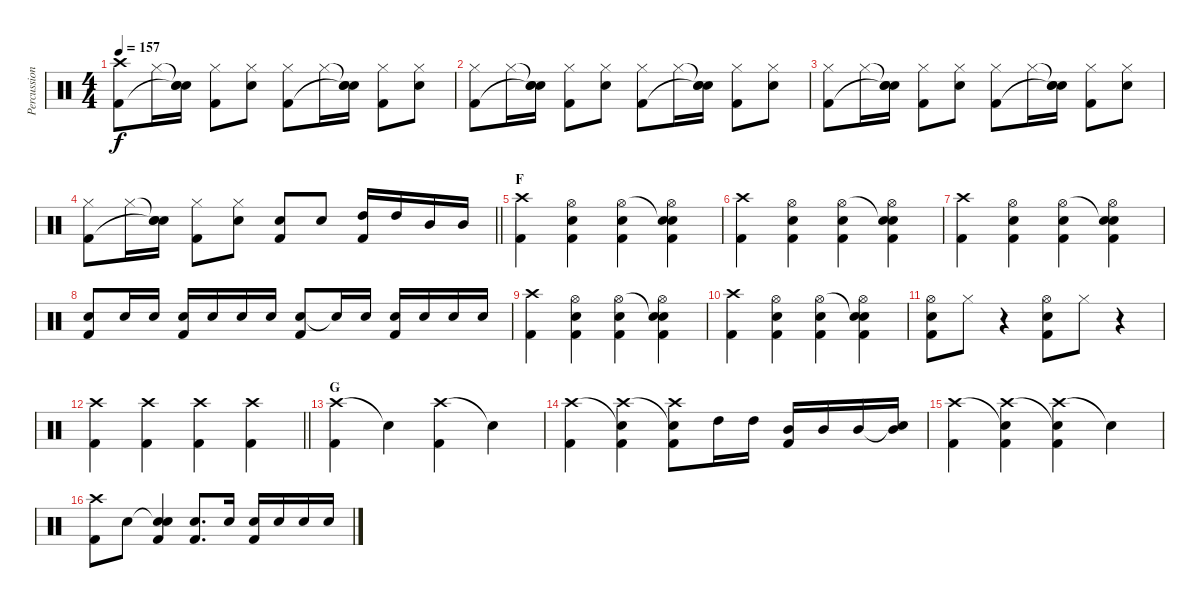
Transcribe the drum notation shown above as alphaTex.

\track ("Percussion" "Percussion") {instrument percussion}
\staff {score}
\articulation defaults
\ts (4 4)
\tempo 157
\clef neutral
\ks c
("Crash high (hit)" "Kick (hit) 2").8{dy f} "Hi-Hat (closed)".16 ("Snare (hit)"{t} "Snare (hit)"{t} "Electric Snare (hit)").16 ("Hi-Hat (closed)" "Kick (hit) 2").8 ("Hi-Hat (closed)" "Electric Snare (hit)").8 ("Hi-Hat (closed)" "Kick (hit) 2").8 "Hi-Hat (closed)".16 ("Snare (hit)"{t} "Snare (hit)"{t} "Electric Snare (hit)").16 ("Hi-Hat (closed)" "Kick (hit) 2").8 ("Hi-Hat (closed)" "Electric Snare (hit)").8 |
("Hi-Hat (closed)" "Kick (hit) 2").8 "Hi-Hat (closed)".16 ("Snare (hit)"{t} "Snare (hit)"{t} "Electric Snare (hit)").16 ("Hi-Hat (closed)" "Kick (hit) 2").8 ("Hi-Hat (closed)" "Electric Snare (hit)").8 ("Hi-Hat (closed)" "Kick (hit) 2").8 "Hi-Hat (closed)".16 ("Snare (hit)"{t} "Snare (hit)"{t} "Electric Snare (hit)").16 ("Hi-Hat (closed)" "Kick (hit) 2").8 ("Hi-Hat (closed)" "Electric Snare (hit)").8 |
("Hi-Hat (closed)" "Kick (hit) 2").8 "Hi-Hat (closed)".16 ("Snare (hit)"{t} "Snare (hit)"{t} "Electric Snare (hit)").16 ("Hi-Hat (closed)" "Kick (hit) 2").8 ("Hi-Hat (closed)" "Electric Snare (hit)").8 ("Hi-Hat (closed)" "Kick (hit) 2").8 "Hi-Hat (closed)".16 ("Snare (hit)"{t} "Snare (hit)"{t} "Electric Snare (hit)").16 ("Hi-Hat (closed)" "Kick (hit) 2").8 ("Hi-Hat (closed)" "Electric Snare (hit)").8 |
\barLineRight lightlight
("Hi-Hat (closed)" "Kick (hit) 2").8 "Hi-Hat (closed)".16 ("Snare (hit)"{t} "Snare (hit)"{t} "Electric Snare (hit)").16 ("Hi-Hat (closed)" "Kick (hit) 2").8 ("Hi-Hat (closed)" "Electric Snare (hit)").8 ("Electric Snare (hit)" "Kick (hit) 2").8 "Electric Snare (hit)".8 ("High Tom (hit)" "Kick (hit) 2").16 "High Tom (hit)".16 "Mid Tom (hit)".16 "Mid Tom (hit)".16 |
\section ("" "F")
("Crash high (hit)" "Kick (hit) 2").4 ("Hi-Hat (open)" "Electric Snare (hit)" "Kick (hit) 2").4 ("Hi-Hat (open)" "Electric Snare (hit)" "Kick (hit) 2").4 ("Snare (hit)"{t} "Hi-Hat (open)" "Electric Snare (hit)" "Kick (hit) 2").4 |
("Crash high (hit)" "Kick (hit) 2").4 ("Hi-Hat (open)" "Electric Snare (hit)" "Kick (hit) 2").4 ("Hi-Hat (open)" "Electric Snare (hit)" "Kick (hit) 2").4 ("Snare (hit)"{t} "Hi-Hat (open)" "Electric Snare (hit)" "Kick (hit) 2").4 |
("Crash high (hit)" "Kick (hit) 2").4 ("Hi-Hat (open)" "Electric Snare (hit)" "Kick (hit) 2").4 ("Hi-Hat (open)" "Electric Snare (hit)" "Kick (hit) 2").4 ("Snare (hit)"{t} "Hi-Hat (open)" "Electric Snare (hit)" "Kick (hit) 2").4 |
("Electric Snare (hit)" "Kick (hit) 2").8 "Electric Snare (hit)".16 "Electric Snare (hit)".16 ("Electric Snare (hit)" "Kick (hit) 2").16 "Electric Snare (hit)".16 "Electric Snare (hit)".16 "Electric Snare (hit)".16 ("Electric Snare (hit)" "Kick (hit) 2").8 "Electric Snare (hit)"{t}.16 "Electric Snare (hit)".16 ("Electric Snare (hit)" "Kick (hit) 2").16 "Electric Snare (hit)".16 "Electric Snare (hit)".16 "Electric Snare (hit)".16 |
("Crash high (hit)" "Kick (hit) 2").4 ("Hi-Hat (open)" "Electric Snare (hit)" "Kick (hit) 2").4 ("Hi-Hat (open)" "Electric Snare (hit)" "Kick (hit) 2").4 ("Snare (hit)"{t} "Hi-Hat (open)" "Electric Snare (hit)" "Kick (hit) 2").4 |
("Crash high (hit)" "Kick (hit) 2").4 ("Hi-Hat (open)" "Electric Snare (hit)" "Kick (hit) 2").4 ("Hi-Hat (open)" "Electric Snare (hit)" "Kick (hit) 2").4 ("Snare (hit)"{t} "Hi-Hat (open)" "Electric Snare (hit)" "Kick (hit) 2").4 |
("Hi-Hat (open)" "Electric Snare (hit)" "Kick (hit) 2").8 "Hi-Hat (closed)".8 r.4 ("Hi-Hat (open)" "Electric Snare (hit)" "Kick (hit) 2").8 "Hi-Hat (closed)".8 r.4 |
\barLineRight lightlight
("Crash high (hit)" "Kick (hit) 2").4 ("Crash high (hit)" "Kick (hit) 2").4 ("Crash high (hit)" "Kick (hit) 2").4 ("Crash high (hit)" "Kick (hit) 2").4 |
\section ("" "G")
("Crash high (hit)" "Kick (hit) 2").4 "Snare (hit)"{t}.4 ("Crash high (hit)" "Kick (hit) 2").4 "Snare (hit)"{t}.4 |
("Crash high (hit)" "Kick (hit) 2").4 ("Snare (hit)"{t} "Crash high (hit)" "Kick (hit) 2").4 ("Crash high (hit)" "Snare (hit)"{t} "Kick (hit) 2").8 "High Tom (hit)".16 "High Tom (hit)".16 ("Mid Tom (hit)" "Kick (hit) 2").16 "Mid Tom (hit)".16 "Mid Tom (hit)".16 ("Snare (hit)"{t} "Mid Tom (hit)").16 |
("Crash high (hit)" "Kick (hit) 2").4 ("Snare (hit)"{t} "Crash high (hit)" "Kick (hit) 2").4 ("Crash high (hit)" "Snare (hit)"{t} "Kick (hit) 2").4 "Snare (hit)"{t}.4 |
("Crash high (hit)" "Kick (hit) 2").8 "Electric Snare (hit)".8 ("Snare (hit)"{t} "Electric Snare (hit)" "Kick (hit) 2").4 ("Electric Snare (hit)" "Kick (hit) 2").8{d} "Electric Snare (hit)".16 ("Electric Snare (hit)" "Kick (hit) 2").16 "Electric Snare (hit)".16 "Electric Snare (hit)".16 "Electric Snare (hit)".16
